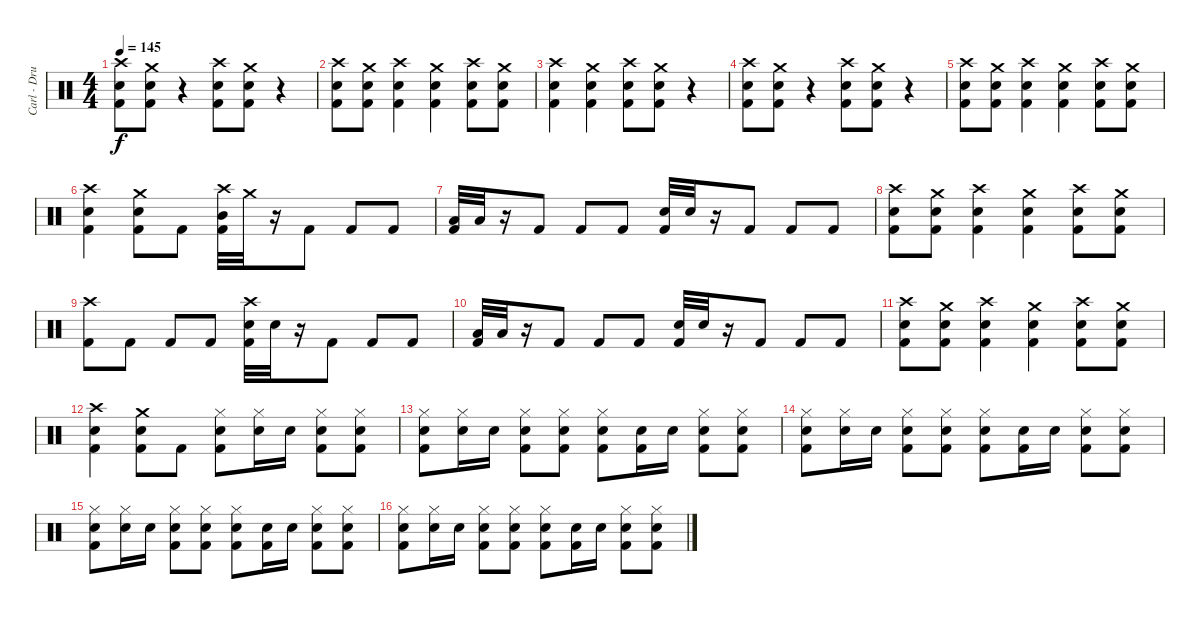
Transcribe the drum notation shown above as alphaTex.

\track ("Carl - Drums" "Carl - Dru") {instrument percussion}
\staff {score}
\articulation defaults
\ts (4 4)
\tempo 145
\clef neutral
\ks c
("Crash high (hit)" "Electric Snare (hit)" "Kick (hit) 2").8{dy f} ("Crash medium (hit)" "Electric Snare (hit)" "Kick (hit) 2").8 r.4 ("Crash high (hit)" "Electric Snare (hit)" "Kick (hit) 2").8 ("Crash medium (hit)" "Electric Snare (hit)" "Kick (hit) 2").8 r.4 |
("Crash high (hit)" "Electric Snare (hit)" "Kick (hit) 2").8 ("Crash medium (hit)" "Electric Snare (hit)" "Kick (hit) 2").8 ("Crash high (hit)" "Electric Snare (hit)" "Kick (hit) 2").4 ("Crash medium (hit)" "Electric Snare (hit)" "Kick (hit) 2").4 ("Crash high (hit)" "Electric Snare (hit)" "Kick (hit) 2").8 ("Crash medium (hit)" "Electric Snare (hit)" "Kick (hit) 2").8 |
("Crash high (hit)" "Electric Snare (hit)" "Kick (hit) 2").4 ("Crash medium (hit)" "Electric Snare (hit)" "Kick (hit) 2").4 ("Crash high (hit)" "Electric Snare (hit)" "Kick (hit) 2").8 ("Crash medium (hit)" "Electric Snare (hit)" "Kick (hit) 2").8 r.4 |
("Crash high (hit)" "Electric Snare (hit)" "Kick (hit) 2").8 ("Crash medium (hit)" "Electric Snare (hit)" "Kick (hit) 2").8 r.4 ("Crash high (hit)" "Electric Snare (hit)" "Kick (hit) 2").8 ("Crash medium (hit)" "Electric Snare (hit)" "Kick (hit) 2").8 r.4 |
("Crash high (hit)" "Electric Snare (hit)" "Kick (hit) 2").8 ("Crash medium (hit)" "Electric Snare (hit)" "Kick (hit) 2").8 ("Crash high (hit)" "Electric Snare (hit)" "Kick (hit) 2").4 ("Crash medium (hit)" "Electric Snare (hit)" "Kick (hit) 2").4 ("Crash high (hit)" "Electric Snare (hit)" "Kick (hit) 2").8 ("Crash medium (hit)" "Electric Snare (hit)" "Kick (hit) 2").8 |
("Crash high (hit)" "Electric Snare (hit)" "Kick (hit) 2").4 ("Crash medium (hit)" "Electric Snare (hit)" "Kick (hit) 2").8 "Kick (hit) 2".8 ("Mid Tom (hit)" "Crash high (hit)" "Kick (hit) 2").32 "Crash medium (hit)".32 r.16 "Kick (hit) 2".8 "Kick (hit) 2".8 "Kick (hit) 2".8 |
("Low Tom (hit)" "Kick (hit) 2").32 "Low Tom (hit)".32 r.16 "Kick (hit) 2".8 "Kick (hit) 2".8 "Kick (hit) 2".8 ("Electric Snare (hit)" "Kick (hit) 2").32 "Electric Snare (hit)".32 r.16 "Kick (hit) 2".8 "Kick (hit) 2".8 "Kick (hit) 2".8 |
("Crash high (hit)" "Electric Snare (hit)" "Kick (hit) 2").8 ("Crash medium (hit)" "Electric Snare (hit)" "Kick (hit) 2").8 ("Crash high (hit)" "Electric Snare (hit)" "Kick (hit) 2").4 ("Crash medium (hit)" "Electric Snare (hit)" "Kick (hit) 2").4 ("Crash high (hit)" "Electric Snare (hit)" "Kick (hit) 2").8 ("Crash medium (hit)" "Electric Snare (hit)" "Kick (hit) 2").8 |
("Crash high (hit)" "Kick (hit) 2").8 "Kick (hit) 2".8 "Kick (hit) 2".8 "Kick (hit) 2".8 ("Crash high (hit)" "Electric Snare (hit)" "Kick (hit) 2").32 "Electric Snare (hit)".32 r.16 "Kick (hit) 2".8 "Kick (hit) 2".8 "Kick (hit) 2".8 |
("Low Tom (hit)" "Kick (hit) 2").32 "Low Tom (hit)".32 r.16 "Kick (hit) 2".8 "Kick (hit) 2".8 "Kick (hit) 2".8 ("Electric Snare (hit)" "Kick (hit) 2").32 "Electric Snare (hit)".32 r.16 "Kick (hit) 2".8 "Kick (hit) 2".8 "Kick (hit) 2".8 |
("Crash high (hit)" "Electric Snare (hit)" "Kick (hit) 2").8 ("Crash medium (hit)" "Electric Snare (hit)" "Kick (hit) 2").8 ("Crash high (hit)" "Electric Snare (hit)" "Kick (hit) 2").4 ("Crash medium (hit)" "Electric Snare (hit)" "Kick (hit) 2").4 ("Crash high (hit)" "Electric Snare (hit)" "Kick (hit) 2").8 ("Crash medium (hit)" "Electric Snare (hit)" "Kick (hit) 2").8 |
("Crash high (hit)" "Electric Snare (hit)" "Kick (hit) 2").4 ("Crash medium (hit)" "Electric Snare (hit)" "Kick (hit) 2").8 "Kick (hit) 2".8 ("Hi-Hat (closed)" "Electric Snare (hit)" "Kick (hit) 2").8 ("Hi-Hat (closed)" "Electric Snare (hit)").16 "Electric Snare (hit)".16 ("Hi-Hat (closed)" "Electric Snare (hit)" "Kick (hit) 2").8 ("Hi-Hat (closed)" "Electric Snare (hit)" "Kick (hit) 2").8 |
("Hi-Hat (closed)" "Electric Snare (hit)" "Kick (hit) 2").8 ("Hi-Hat (closed)" "Electric Snare (hit)").16 "Electric Snare (hit)".16 ("Hi-Hat (closed)" "Electric Snare (hit)" "Kick (hit) 2").8 ("Hi-Hat (closed)" "Electric Snare (hit)" "Kick (hit) 2").8 ("Hi-Hat (closed)" "Electric Snare (hit)" "Kick (hit) 2").8 ("Kick (hit) 2" "Electric Snare (hit)").16 "Electric Snare (hit)".16 ("Hi-Hat (closed)" "Electric Snare (hit)" "Kick (hit) 2").8 ("Hi-Hat (closed)" "Electric Snare (hit)" "Kick (hit) 2").8 |
("Hi-Hat (closed)" "Electric Snare (hit)" "Kick (hit) 2").8 ("Hi-Hat (closed)" "Electric Snare (hit)").16 "Electric Snare (hit)".16 ("Hi-Hat (closed)" "Electric Snare (hit)" "Kick (hit) 2").8 ("Hi-Hat (closed)" "Electric Snare (hit)" "Kick (hit) 2").8 ("Hi-Hat (closed)" "Electric Snare (hit)" "Kick (hit) 2").8 ("Kick (hit) 2" "Electric Snare (hit)").16 "Electric Snare (hit)".16 ("Hi-Hat (closed)" "Electric Snare (hit)" "Kick (hit) 2").8 ("Hi-Hat (closed)" "Electric Snare (hit)" "Kick (hit) 2").8 |
("Hi-Hat (closed)" "Electric Snare (hit)" "Kick (hit) 2").8 ("Hi-Hat (closed)" "Electric Snare (hit)").16 "Electric Snare (hit)".16 ("Hi-Hat (closed)" "Electric Snare (hit)" "Kick (hit) 2").8 ("Hi-Hat (closed)" "Electric Snare (hit)" "Kick (hit) 2").8 ("Hi-Hat (closed)" "Electric Snare (hit)" "Kick (hit) 2").8 ("Kick (hit) 2" "Electric Snare (hit)").16 "Electric Snare (hit)".16 ("Hi-Hat (closed)" "Electric Snare (hit)" "Kick (hit) 2").8 ("Hi-Hat (closed)" "Electric Snare (hit)" "Kick (hit) 2").8 |
("Hi-Hat (closed)" "Electric Snare (hit)" "Kick (hit) 2").8 ("Hi-Hat (closed)" "Electric Snare (hit)").16 "Electric Snare (hit)".16 ("Hi-Hat (closed)" "Electric Snare (hit)" "Kick (hit) 2").8 ("Hi-Hat (closed)" "Electric Snare (hit)" "Kick (hit) 2").8 ("Hi-Hat (closed)" "Electric Snare (hit)" "Kick (hit) 2").8 ("Kick (hit) 2" "Electric Snare (hit)").16 "Electric Snare (hit)".16 ("Hi-Hat (closed)" "Electric Snare (hit)" "Kick (hit) 2").8 ("Hi-Hat (closed)" "Electric Snare (hit)" "Kick (hit) 2").8
